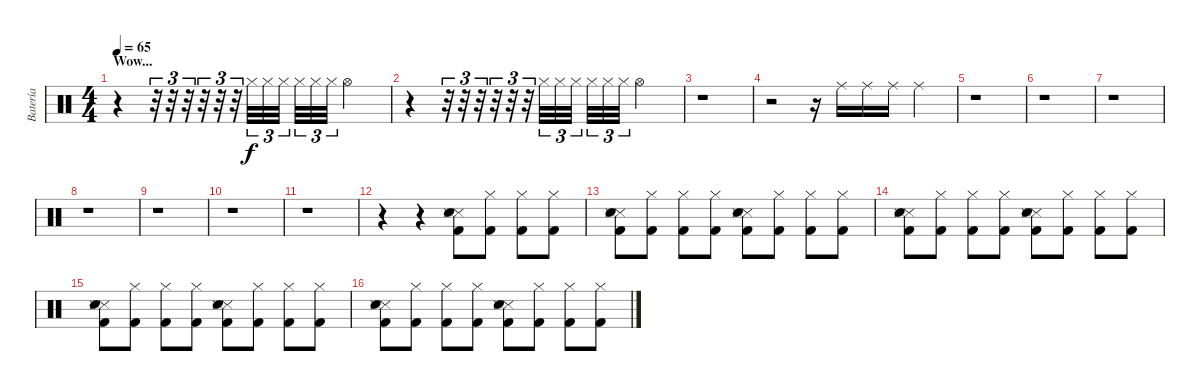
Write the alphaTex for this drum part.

\track ("Batería" "Batería") {instrument percussion}
\staff {score}
\articulation defaults
\ts (4 4)
\section ("" "Wow...")
\tempo 65
\clef neutral
\ks c
r.4{dy f} r.32{tu (3 2)} r.32{tu (3 2)} r.32{tu (3 2)} r.32{tu (3 2)} r.32{tu (3 2)} r.32{tu (3 2)} "Hi-Hat (closed)".32{tu (3 2)} "Hi-Hat (closed)".32{tu (3 2)} "Hi-Hat (closed)".32{tu (3 2)} "Hi-Hat (closed)".32{tu (3 2)} "Hi-Hat (closed)".32{tu (3 2)} "Hi-Hat (closed)".32{tu (3 2)} "Hi-Hat (open)".2 |
r.4 r.32{tu (3 2)} r.32{tu (3 2)} r.32{tu (3 2)} r.32{tu (3 2)} r.32{tu (3 2)} r.32{tu (3 2)} "Hi-Hat (closed)".32{tu (3 2)} "Hi-Hat (closed)".32{tu (3 2)} "Hi-Hat (closed)".32{tu (3 2)} "Hi-Hat (closed)".32{tu (3 2)} "Hi-Hat (closed)".32{tu (3 2)} "Hi-Hat (closed)".32{tu (3 2)} "Hi-Hat (open)".2 |
r.1 |
r.2 r.16 "Ride (middle)".16 "Ride (middle)".16 "Ride (middle)".16 "Ride (middle)".4 |
r.1 |
r.1 |
r.1 |
r.1 |
r.1 |
r.1 |
r.1 |
r.4 r.4 ("Snare (side stick) 3" "Snare (side stick) 3" "Snare (hit) 2" "Kick (hit) 2").8 ("Hi-Hat (closed)" "Kick (hit) 2").8 ("Hi-Hat (closed)" "Kick (hit) 2").8 ("Hi-Hat (closed)" "Kick (hit) 2").8 |
("Snare (side stick) 3" "Snare (side stick) 3" "Snare (hit) 2" "Kick (hit) 2").8 ("Hi-Hat (closed)" "Kick (hit) 2").8 ("Hi-Hat (closed)" "Kick (hit) 2").8 ("Hi-Hat (closed)" "Kick (hit) 2").8 ("Snare (side stick) 3" "Snare (side stick) 3" "Snare (hit) 2" "Kick (hit) 2").8 ("Hi-Hat (closed)" "Kick (hit) 2").8 ("Hi-Hat (closed)" "Kick (hit) 2").8 ("Hi-Hat (closed)" "Kick (hit) 2").8 |
("Snare (side stick) 3" "Snare (side stick) 3" "Snare (hit) 2" "Kick (hit) 2").8 ("Hi-Hat (closed)" "Kick (hit) 2").8 ("Hi-Hat (closed)" "Kick (hit) 2").8 ("Hi-Hat (closed)" "Kick (hit) 2").8 ("Snare (side stick) 3" "Snare (side stick) 3" "Snare (hit) 2" "Kick (hit) 2").8 ("Hi-Hat (closed)" "Kick (hit) 2").8 ("Hi-Hat (closed)" "Kick (hit) 2").8 ("Hi-Hat (closed)" "Kick (hit) 2").8 |
("Snare (side stick) 3" "Snare (side stick) 3" "Snare (hit) 2" "Kick (hit) 2").8 ("Hi-Hat (closed)" "Kick (hit) 2").8 ("Hi-Hat (closed)" "Kick (hit) 2").8 ("Hi-Hat (closed)" "Kick (hit) 2").8 ("Snare (side stick) 3" "Snare (side stick) 3" "Snare (hit) 2" "Kick (hit) 2").8 ("Hi-Hat (closed)" "Kick (hit) 2").8 ("Hi-Hat (closed)" "Kick (hit) 2").8 ("Hi-Hat (closed)" "Kick (hit) 2").8 |
("Snare (side stick) 3" "Snare (side stick) 3" "Snare (hit) 2" "Kick (hit) 2").8 ("Hi-Hat (closed)" "Kick (hit) 2").8 ("Hi-Hat (closed)" "Kick (hit) 2").8 ("Hi-Hat (closed)" "Kick (hit) 2").8 ("Snare (side stick) 3" "Snare (side stick) 3" "Snare (hit) 2" "Kick (hit) 2").8 ("Hi-Hat (closed)" "Kick (hit) 2").8 ("Hi-Hat (closed)" "Kick (hit) 2").8 ("Hi-Hat (closed)" "Kick (hit) 2").8
